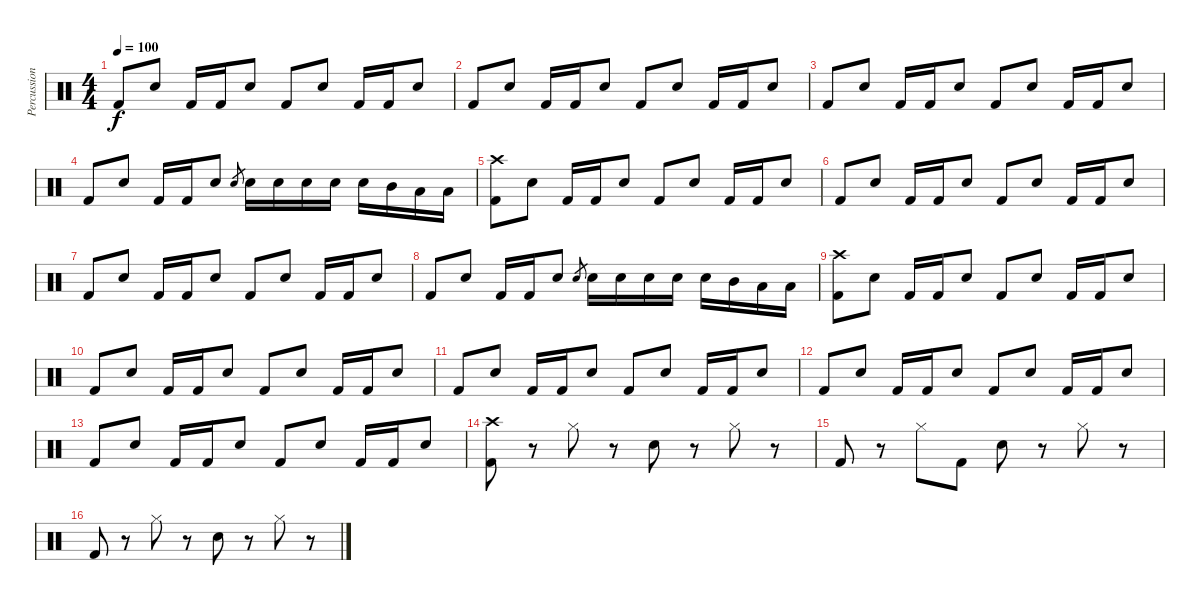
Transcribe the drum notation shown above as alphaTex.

\track ("Percussions" "Percussion") {instrument percussion}
\staff {score}
\articulation defaults
\ts (4 4)
\tempo 100
\clef neutral
\ks c "Kick (hit) 2".8{dy f} "Snare (hit) 2".8 "Kick (hit) 2".16 "Kick (hit) 2".16 "Snare (hit) 2".8 "Kick (hit) 2".8 "Snare (hit) 2".8 "Kick (hit) 2".16 "Kick (hit) 2".16 "Snare (hit) 2".8
|
"Kick (hit) 2".8 "Snare (hit) 2".8 "Kick (hit) 2".16 "Kick (hit) 2".16 "Snare (hit) 2".8 "Kick (hit) 2".8 "Snare (hit) 2".8 "Kick (hit) 2".16 "Kick (hit) 2".16 "Snare (hit) 2".8 |
"Kick (hit) 2".8 "Snare (hit) 2".8 "Kick (hit) 2".16 "Kick (hit) 2".16 "Snare (hit) 2".8 "Kick (hit) 2".8 "Snare (hit) 2".8 "Kick (hit) 2".16 "Kick (hit) 2".16 "Snare (hit) 2".8 |
"Kick (hit) 2".8 "Snare (hit) 2".8 "Kick (hit) 2".16 "Kick (hit) 2".16 "Snare (hit) 2".8 "Snare (hit) 2".8{gr} "Snare (hit) 2".16 "Snare (hit) 2".16 "Snare (hit) 2".16 "Snare (hit) 2".16 "Snare (hit) 2".16 "Mid Tom (hit)".16 "Low Tom (hit)".16 "Low Floor Tom (hit)".16 |
("Crash high (hit)" "Kick (hit) 2").8 "Snare (hit) 2".8 "Kick (hit) 2".16 "Kick (hit) 2".16 "Snare (hit) 2".8 "Kick (hit) 2".8 "Snare (hit) 2".8 "Kick (hit) 2".16 "Kick (hit) 2".16 "Snare (hit) 2".8 |
"Kick (hit) 2".8 "Snare (hit) 2".8 "Kick (hit) 2".16 "Kick (hit) 2".16 "Snare (hit) 2".8 "Kick (hit) 2".8 "Snare (hit) 2".8 "Kick (hit) 2".16 "Kick (hit) 2".16 "Snare (hit) 2".8 |
"Kick (hit) 2".8 "Snare (hit) 2".8 "Kick (hit) 2".16 "Kick (hit) 2".16 "Snare (hit) 2".8 "Kick (hit) 2".8 "Snare (hit) 2".8 "Kick (hit) 2".16 "Kick (hit) 2".16 "Snare (hit) 2".8 |
"Kick (hit) 2".8 "Snare (hit) 2".8 "Kick (hit) 2".16 "Kick (hit) 2".16 "Snare (hit) 2".8 "Snare (hit) 2".8{gr} "Snare (hit) 2".16 "Snare (hit) 2".16 "Snare (hit) 2".16 "Snare (hit) 2".16 "Snare (hit) 2".16 "Mid Tom (hit)".16 "Low Tom (hit)".16 "Low Floor Tom (hit)".16 |
("Crash high (hit)" "Kick (hit) 2").8 "Snare (hit) 2".8 "Kick (hit) 2".16 "Kick (hit) 2".16 "Snare (hit) 2".8 "Kick (hit) 2".8 "Snare (hit) 2".8 "Kick (hit) 2".16 "Kick (hit) 2".16 "Snare (hit) 2".8 |
"Kick (hit) 2".8 "Snare (hit) 2".8 "Kick (hit) 2".16 "Kick (hit) 2".16 "Snare (hit) 2".8 "Kick (hit) 2".8 "Snare (hit) 2".8 "Kick (hit) 2".16 "Kick (hit) 2".16 "Snare (hit) 2".8 |
"Kick (hit) 2".8 "Snare (hit) 2".8 "Kick (hit) 2".16 "Kick (hit) 2".16 "Snare (hit) 2".8 "Kick (hit) 2".8 "Snare (hit) 2".8 "Kick (hit) 2".16 "Kick (hit) 2".16 "Snare (hit) 2".8 |
"Kick (hit) 2".8 "Snare (hit) 2".8 "Kick (hit) 2".16 "Kick (hit) 2".16 "Snare (hit) 2".8 "Kick (hit) 2".8 "Snare (hit) 2".8 "Kick (hit) 2".16 "Kick (hit) 2".16 "Snare (hit) 2".8 |
"Kick (hit) 2".8 "Snare (hit) 2".8 "Kick (hit) 2".16 "Kick (hit) 2".16 "Snare (hit) 2".8 "Kick (hit) 2".8 "Snare (hit) 2".8 "Kick (hit) 2".16 "Kick (hit) 2".16 "Snare (hit) 2".8 |
("Crash high (hit)" "Kick (hit) 2").8 r.8 "Hi-Hat (closed)".8 r.8 "Snare (hit) 2".8 r.8 "Hi-Hat (closed)".8 r.8 |
"Kick (hit) 2".8 r.8 "Hi-Hat (closed)".8 "Kick (hit) 2".8 "Snare (hit) 2".8 r.8 "Hi-Hat (closed)".8 r.8 |
"Kick (hit) 2".8 r.8 "Hi-Hat (closed)".8 r.8 "Snare (hit) 2".8 r.8 "Hi-Hat (closed)".8 r.8
